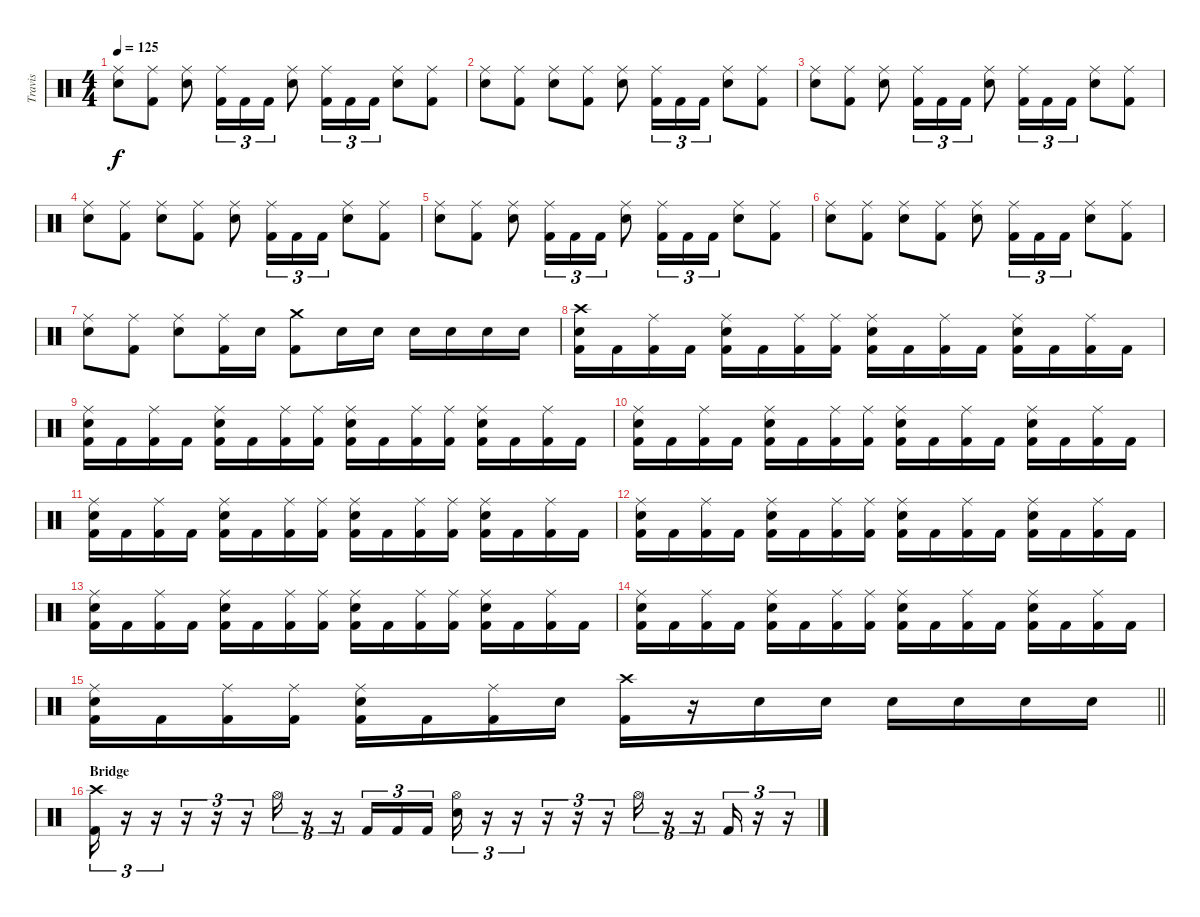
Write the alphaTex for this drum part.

\track ("Travis" "Travis") {instrument percussion}
\staff {score}
\articulation defaults
\ts (4 4)
\tempo 125
\clef neutral
\ks c
("Ride (middle)" "Electric Snare (hit)").8{dy f} ("Ride (middle)" "Kick (hit) 2").8 ("Ride (middle)" "Electric Snare (hit)").8 ("Ride (middle)" "Kick (hit) 2").16{tu (3 2)} "Kick (hit) 2".16{tu (3 2)} "Kick (hit) 2".16{tu (3 2)} ("Ride (middle)" "Electric Snare (hit)").8 ("Ride (middle)" "Kick (hit) 2").16{tu (3 2)} "Kick (hit) 2".16{tu (3 2)} "Kick (hit) 2".16{tu (3 2)} ("Ride (middle)" "Electric Snare (hit)").8 ("Ride (middle)" "Kick (hit) 2").8 |
("Ride (middle)" "Electric Snare (hit)").8 ("Ride (middle)" "Kick (hit) 2").8 ("Ride (middle)" "Electric Snare (hit)").8 ("Ride (middle)" "Kick (hit) 2").8 ("Ride (middle)" "Electric Snare (hit)").8 ("Ride (middle)" "Kick (hit) 2").16{tu (3 2)} "Kick (hit) 2".16{tu (3 2)} "Kick (hit) 2".16{tu (3 2)} ("Ride (middle)" "Electric Snare (hit)").8 ("Ride (middle)" "Kick (hit) 2").8 |
("Ride (middle)" "Electric Snare (hit)").8 ("Ride (middle)" "Kick (hit) 2").8 ("Ride (middle)" "Electric Snare (hit)").8 ("Ride (middle)" "Kick (hit) 2").16{tu (3 2)} "Kick (hit) 2".16{tu (3 2)} "Kick (hit) 2".16{tu (3 2)} ("Ride (middle)" "Electric Snare (hit)").8 ("Ride (middle)" "Kick (hit) 2").16{tu (3 2)} "Kick (hit) 2".16{tu (3 2)} "Kick (hit) 2".16{tu (3 2)} ("Ride (middle)" "Electric Snare (hit)").8 ("Ride (middle)" "Kick (hit) 2").8 |
("Ride (middle)" "Electric Snare (hit)").8 ("Ride (middle)" "Kick (hit) 2").8 ("Ride (middle)" "Electric Snare (hit)").8 ("Ride (middle)" "Kick (hit) 2").8 ("Ride (middle)" "Electric Snare (hit)").8 ("Ride (middle)" "Kick (hit) 2").16{tu (3 2)} "Kick (hit) 2".16{tu (3 2)} "Kick (hit) 2".16{tu (3 2)} ("Ride (middle)" "Electric Snare (hit)").8 ("Ride (middle)" "Kick (hit) 2").8 |
("Ride (middle)" "Electric Snare (hit)").8 ("Ride (middle)" "Kick (hit) 2").8 ("Ride (middle)" "Electric Snare (hit)").8 ("Ride (middle)" "Kick (hit) 2").16{tu (3 2)} "Kick (hit) 2".16{tu (3 2)} "Kick (hit) 2".16{tu (3 2)} ("Ride (middle)" "Electric Snare (hit)").8 ("Ride (middle)" "Kick (hit) 2").16{tu (3 2)} "Kick (hit) 2".16{tu (3 2)} "Kick (hit) 2".16{tu (3 2)} ("Ride (middle)" "Electric Snare (hit)").8 ("Ride (middle)" "Kick (hit) 2").8 |
("Ride (middle)" "Electric Snare (hit)").8 ("Ride (middle)" "Kick (hit) 2").8 ("Ride (middle)" "Electric Snare (hit)").8 ("Ride (middle)" "Kick (hit) 2").8 ("Ride (middle)" "Electric Snare (hit)").8 ("Ride (middle)" "Kick (hit) 2").16{tu (3 2)} "Kick (hit) 2".16{tu (3 2)} "Kick (hit) 2".16{tu (3 2)} ("Ride (middle)" "Electric Snare (hit)").8 ("Ride (middle)" "Kick (hit) 2").8 |
("Ride (middle)" "Electric Snare (hit)").8 ("Ride (middle)" "Kick (hit) 2").8 ("Ride (middle)" "Electric Snare (hit)").8 ("Ride (middle)" "Kick (hit) 2").16 "Electric Snare (hit)".16 ("Crash medium (hit)" "Kick (hit) 2").8 "Electric Snare (hit)".16 "Electric Snare (hit)".16 "Electric Snare (hit)".16 "Electric Snare (hit)".16 "Electric Snare (hit)".16 "Electric Snare (hit)".16 |
("Crash high (hit)" "Electric Snare (hit)" "Kick (hit) 2").16 "Kick (hit) 2".16 ("Ride (middle)" "Kick (hit) 2").16 "Kick (hit) 2".16 ("Ride (middle)" "Electric Snare (hit)" "Kick (hit) 2").16 "Kick (hit) 2".16 ("Ride (middle)" "Kick (hit) 2").16 ("Ride (middle)" "Kick (hit) 2").16 ("Ride (middle)" "Electric Snare (hit)" "Kick (hit) 2").16 "Kick (hit) 2".16 ("Ride (middle)" "Kick (hit) 2").16 "Kick (hit) 2".16 ("Ride (middle)" "Electric Snare (hit)" "Kick (hit) 2").16 "Kick (hit) 2".16 ("Ride (middle)" "Kick (hit) 2").16 "Kick (hit) 2".16 |
("Ride (middle)" "Snare (hit) 2" "Kick (hit) 2").16 "Kick (hit) 2".16 ("Ride (middle)" "Kick (hit) 2").16 "Kick (hit) 2".16 ("Ride (middle)" "Snare (hit) 2" "Kick (hit) 2").16 "Kick (hit) 2".16 ("Ride (middle)" "Kick (hit) 2").16 ("Ride (middle)" "Kick (hit) 2").16 ("Ride (middle)" "Snare (hit) 2" "Kick (hit) 2").16 "Kick (hit) 2".16 ("Ride (middle)" "Kick (hit) 2").16 ("Ride (middle)" "Kick (hit) 2").16 ("Ride (middle)" "Snare (hit) 2" "Kick (hit) 2").16 "Kick (hit) 2".16 ("Ride (middle)" "Kick (hit) 2").16 "Kick (hit) 2".16 |
("Ride (middle)" "Electric Snare (hit)" "Kick (hit) 2").16 "Kick (hit) 2".16 ("Ride (middle)" "Kick (hit) 2").16 "Kick (hit) 2".16 ("Ride (middle)" "Electric Snare (hit)" "Kick (hit) 2").16 "Kick (hit) 2".16 ("Ride (middle)" "Kick (hit) 2").16 ("Ride (middle)" "Kick (hit) 2").16 ("Ride (middle)" "Electric Snare (hit)" "Kick (hit) 2").16 "Kick (hit) 2".16 ("Ride (middle)" "Kick (hit) 2").16 "Kick (hit) 2".16 ("Ride (middle)" "Electric Snare (hit)" "Kick (hit) 2").16 "Kick (hit) 2".16 ("Ride (middle)" "Kick (hit) 2").16 "Kick (hit) 2".16 |
("Ride (middle)" "Snare (hit) 2" "Kick (hit) 2").16 "Kick (hit) 2".16 ("Ride (middle)" "Kick (hit) 2").16 "Kick (hit) 2".16 ("Ride (middle)" "Snare (hit) 2" "Kick (hit) 2").16 "Kick (hit) 2".16 ("Ride (middle)" "Kick (hit) 2").16 ("Ride (middle)" "Kick (hit) 2").16 ("Ride (middle)" "Snare (hit) 2" "Kick (hit) 2").16 "Kick (hit) 2".16 ("Ride (middle)" "Kick (hit) 2").16 ("Ride (middle)" "Kick (hit) 2").16 ("Ride (middle)" "Snare (hit) 2" "Kick (hit) 2").16 "Kick (hit) 2".16 ("Ride (middle)" "Kick (hit) 2").16 "Kick (hit) 2".16 |
("Ride (middle)" "Electric Snare (hit)" "Kick (hit) 2").16 "Kick (hit) 2".16 ("Ride (middle)" "Kick (hit) 2").16 "Kick (hit) 2".16 ("Ride (middle)" "Electric Snare (hit)" "Kick (hit) 2").16 "Kick (hit) 2".16 ("Ride (middle)" "Kick (hit) 2").16 ("Ride (middle)" "Kick (hit) 2").16 ("Ride (middle)" "Electric Snare (hit)" "Kick (hit) 2").16 "Kick (hit) 2".16 ("Ride (middle)" "Kick (hit) 2").16 "Kick (hit) 2".16 ("Ride (middle)" "Electric Snare (hit)" "Kick (hit) 2").16 "Kick (hit) 2".16 ("Ride (middle)" "Kick (hit) 2").16 "Kick (hit) 2".16 |
("Ride (middle)" "Snare (hit) 2" "Kick (hit) 2").16 "Kick (hit) 2".16 ("Ride (middle)" "Kick (hit) 2").16 "Kick (hit) 2".16 ("Ride (middle)" "Snare (hit) 2" "Kick (hit) 2").16 "Kick (hit) 2".16 ("Ride (middle)" "Kick (hit) 2").16 ("Ride (middle)" "Kick (hit) 2").16 ("Ride (middle)" "Snare (hit) 2" "Kick (hit) 2").16 "Kick (hit) 2".16 ("Ride (middle)" "Kick (hit) 2").16 ("Ride (middle)" "Kick (hit) 2").16 ("Ride (middle)" "Snare (hit) 2" "Kick (hit) 2").16 "Kick (hit) 2".16 ("Ride (middle)" "Kick (hit) 2").16 "Kick (hit) 2".16 |
("Ride (middle)" "Electric Snare (hit)" "Kick (hit) 2").16 "Kick (hit) 2".16 ("Ride (middle)" "Kick (hit) 2").16 "Kick (hit) 2".16 ("Ride (middle)" "Electric Snare (hit)" "Kick (hit) 2").16 "Kick (hit) 2".16 ("Ride (middle)" "Kick (hit) 2").16 ("Ride (middle)" "Kick (hit) 2").16 ("Ride (middle)" "Electric Snare (hit)" "Kick (hit) 2").16 "Kick (hit) 2".16 ("Ride (middle)" "Kick (hit) 2").16 "Kick (hit) 2".16 ("Ride (middle)" "Electric Snare (hit)" "Kick (hit) 2").16 "Kick (hit) 2".16 ("Ride (middle)" "Kick (hit) 2").16 "Kick (hit) 2".16 |
\barLineRight lightlight
("Ride (middle)" "Electric Snare (hit)" "Kick (hit) 2").16 "Kick (hit) 2".16 ("Ride (middle)" "Kick (hit) 2").16 ("Ride (middle)" "Kick (hit) 2").16 ("Ride (middle)" "Electric Snare (hit)" "Kick (hit) 2").16 "Kick (hit) 2".16 ("Ride (middle)" "Kick (hit) 2").16 "Electric Snare (hit)".16 ("Crash high (hit)" "Kick (hit) 2").16 r.16 "Electric Snare (hit)".16 "Electric Snare (hit)".16 "Electric Snare (hit)".16 "Electric Snare (hit)".16 "Electric Snare (hit)".16 "Electric Snare (hit)".16 |
\section ("" "Bridge")
("Crash high (hit)" "Kick (hit) 2").16{tu (3 2)} r.16{tu (3 2)} r.16{tu (3 2)} r.16{tu (3 2)} r.16{tu (3 2)} r.16{tu (3 2)} "Hi-Hat (open)".16{tu (3 2)} r.16{tu (3 2)} r.16{tu (3 2)} "Kick (hit) 2".16{tu (3 2)} "Kick (hit) 2".16{tu (3 2)} "Kick (hit) 2".16{tu (3 2)} ("Hi-Hat (open)" "Electric Snare (hit)").16{tu (3 2)} r.16{tu (3 2)} r.16{tu (3 2)} r.16{tu (3 2)} r.16{tu (3 2)} r.16{tu (3 2)} "Hi-Hat (open)".16{tu (3 2)} r.16{tu (3 2)} r.16{tu (3 2)} "Kick (hit) 2".16{tu (3 2)} r.16{tu (3 2)} r.16{tu (3 2)}
